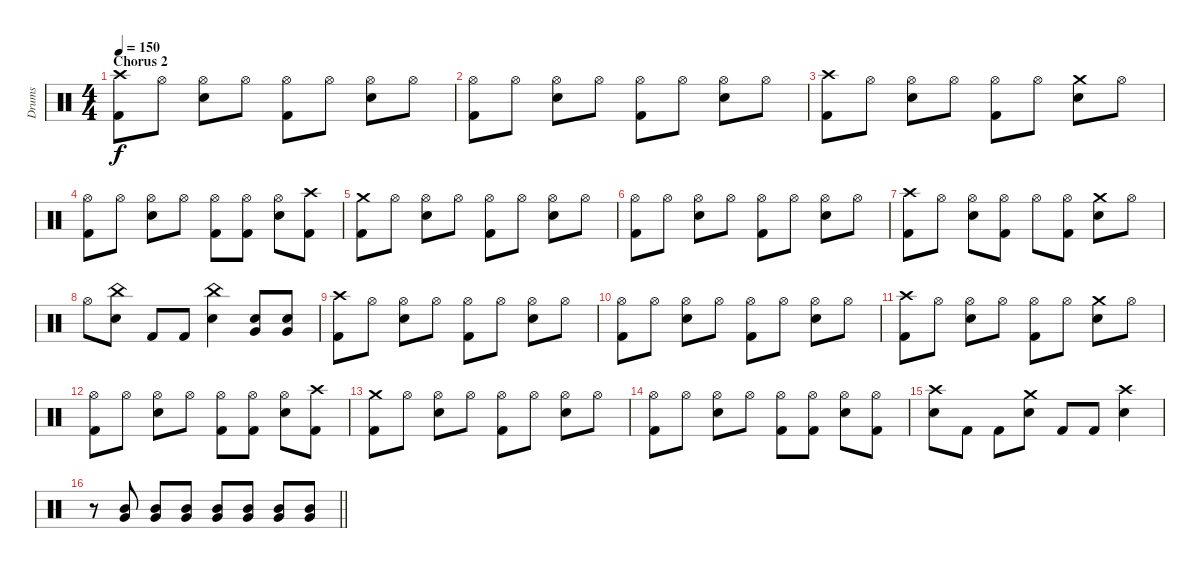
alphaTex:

\track ("Drums" "Drums") {instrument percussion}
\staff {score}
\articulation defaults
\ts (4 4)
\section ("" "Chorus 2")
\tempo 150
\clef neutral
\ks c
("Crash high (hit)" "Kick (hit) 2").8{dy f} "Hi-Hat (open)".8 ("Hi-Hat (open)" "Electric Snare (hit)").8 "Hi-Hat (open)".8 ("Hi-Hat (open)" "Kick (hit) 2").8 "Hi-Hat (open)".8 ("Hi-Hat (open)" "Electric Snare (hit)").8 "Hi-Hat (open)".8 |
("Hi-Hat (open)" "Kick (hit) 2").8 "Hi-Hat (open)".8 ("Hi-Hat (open)" "Electric Snare (hit)").8 "Hi-Hat (open)".8 ("Hi-Hat (open)" "Kick (hit) 2").8 "Hi-Hat (open)".8 ("Hi-Hat (open)" "Electric Snare (hit)").8 "Hi-Hat (open)".8 |
("Crash high (hit)" "Kick (hit) 2").8 "Hi-Hat (open)".8 ("Hi-Hat (open)" "Electric Snare (hit)").8 "Hi-Hat (open)".8 ("Hi-Hat (open)" "Kick (hit) 2").8 "Hi-Hat (open)".8 ("Crash medium (hit)" "Electric Snare (hit)").8 "Hi-Hat (open)".8 |
("Hi-Hat (open)" "Kick (hit) 2").8 "Hi-Hat (open)".8 ("Hi-Hat (open)" "Electric Snare (hit)").8 "Hi-Hat (open)".8 ("Hi-Hat (open)" "Kick (hit) 2").8 ("Hi-Hat (open)" "Kick (hit) 2").8 ("Hi-Hat (open)" "Electric Snare (hit)").8 ("Crash high (hit)" "Kick (hit) 2").8 |
("Crash medium (hit)" "Kick (hit) 2").8 "Hi-Hat (open)".8 ("Hi-Hat (open)" "Electric Snare (hit)").8 "Hi-Hat (open)".8 ("Hi-Hat (open)" "Kick (hit) 2").8 "Hi-Hat (open)".8 ("Hi-Hat (open)" "Electric Snare (hit)").8 "Hi-Hat (open)".8 |
("Hi-Hat (open)" "Kick (hit) 2").8 "Hi-Hat (open)".8 ("Hi-Hat (open)" "Electric Snare (hit)").8 "Hi-Hat (open)".8 ("Hi-Hat (open)" "Kick (hit) 2").8 "Hi-Hat (open)".8 ("Hi-Hat (open)" "Electric Snare (hit)").8 "Hi-Hat (open)".8 |
("Crash high (hit)" "Kick (hit) 2").8 "Hi-Hat (open)".8 ("Hi-Hat (open)" "Electric Snare (hit)").8 ("Hi-Hat (open)" "Kick (hit) 2").8 "Hi-Hat (open)".8 ("Hi-Hat (open)" "Kick (hit) 2").8 ("Crash medium (hit)" "Electric Snare (hit)").8 "Hi-Hat (open)".8 |
"Hi-Hat (open)".8 ("China (hit)" "Electric Snare (hit)").8 "Kick (hit) 2".8 "Kick (hit) 2".8 ("China (hit)" "Electric Snare (hit)").4 ("Very Low Tom (hit)" "Electric Snare (hit)").8 ("Very Low Tom (hit)" "Electric Snare (hit)").8 |
("Crash high (hit)" "Kick (hit) 2").8 "Hi-Hat (open)".8 ("Hi-Hat (open)" "Electric Snare (hit)").8 "Hi-Hat (open)".8 ("Hi-Hat (open)" "Kick (hit) 2").8 "Hi-Hat (open)".8 ("Hi-Hat (open)" "Electric Snare (hit)").8 "Hi-Hat (open)".8 |
("Hi-Hat (open)" "Kick (hit) 2").8 "Hi-Hat (open)".8 ("Hi-Hat (open)" "Electric Snare (hit)").8 "Hi-Hat (open)".8 ("Hi-Hat (open)" "Kick (hit) 2").8 "Hi-Hat (open)".8 ("Hi-Hat (open)" "Electric Snare (hit)").8 "Hi-Hat (open)".8 |
("Crash high (hit)" "Kick (hit) 2").8 "Hi-Hat (open)".8 ("Hi-Hat (open)" "Electric Snare (hit)").8 "Hi-Hat (open)".8 ("Hi-Hat (open)" "Kick (hit) 2").8 "Hi-Hat (open)".8 ("Crash medium (hit)" "Electric Snare (hit)").8 "Hi-Hat (open)".8 |
("Hi-Hat (open)" "Kick (hit) 2").8 "Hi-Hat (open)".8 ("Hi-Hat (open)" "Electric Snare (hit)").8 "Hi-Hat (open)".8 ("Hi-Hat (open)" "Kick (hit) 2").8 ("Hi-Hat (open)" "Kick (hit) 2").8 ("Hi-Hat (open)" "Electric Snare (hit)").8 ("Crash high (hit)" "Kick (hit) 2").8 |
("Crash medium (hit)" "Kick (hit) 2").8 "Hi-Hat (open)".8 ("Hi-Hat (open)" "Electric Snare (hit)").8 "Hi-Hat (open)".8 ("Hi-Hat (open)" "Kick (hit) 2").8 "Hi-Hat (open)".8 ("Hi-Hat (open)" "Electric Snare (hit)").8 "Hi-Hat (open)".8 |
("Hi-Hat (open)" "Kick (hit) 2").8 "Hi-Hat (open)".8 ("Hi-Hat (open)" "Electric Snare (hit)").8 "Hi-Hat (open)".8 ("Hi-Hat (open)" "Kick (hit) 2").8 ("Hi-Hat (open)" "Kick (hit) 2").8 ("Hi-Hat (open)" "Electric Snare (hit)").8 ("Hi-Hat (open)" "Kick (hit) 2").8 |
("Crash high (hit)" "Electric Snare (hit)").8 "Kick (hit) 2".8 "Kick (hit) 2".8 ("Crash medium (hit)" "Electric Snare (hit)").8 "Kick (hit) 2".8 "Kick (hit) 2".8 ("Crash high (hit)" "Electric Snare (hit)").4 |
\barLineRight lightlight
r.8 ("Mid Tom (hit)" "Very Low Tom (hit)").8 ("Mid Tom (hit)" "Very Low Tom (hit)").8 ("Mid Tom (hit)" "Very Low Tom (hit)").8 ("Mid Tom (hit)" "Very Low Tom (hit)").8 ("Mid Tom (hit)" "Very Low Tom (hit)").8 ("Mid Tom (hit)" "Very Low Tom (hit)").8 ("Mid Tom (hit)" "Very Low Tom (hit)").8
